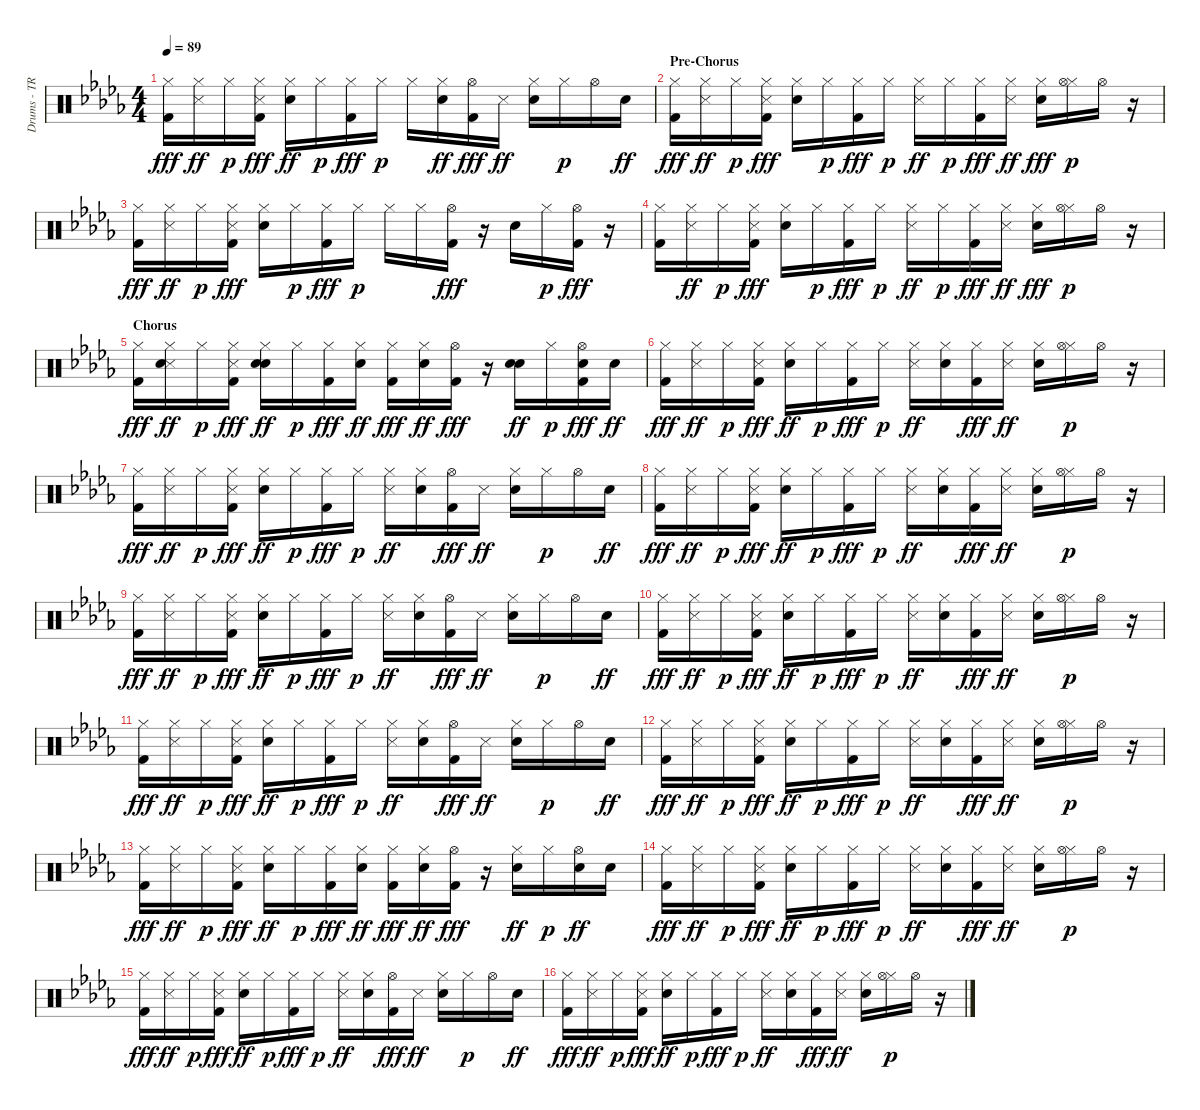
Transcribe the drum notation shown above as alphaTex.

\track ("Drums - TR808" "Drums - TR") {instrument percussion}
\staff {score}
\articulation defaults
\ts (4 4)
\tempo 89
\clef neutral
\ks bbminor
("Kick (hit) 2" "Hi-Hat (closed)").16{dy fff} ("Snare (side stick) 3" "Hi-Hat (closed)").16{dy ff} "Hi-Hat (closed)".16{dy p} ("Kick (hit) 2" "Snare (side stick) 3" "Hi-Hat (closed)").16{dy fff} ("Snare (hit) 2" "Hi-Hat (closed)").16{dy ff} "Hi-Hat (closed)".16{dy p} ("Kick (hit) 2" "Hi-Hat (closed)").16{dy fff} "Hi-Hat (closed)".16{dy p} "Hi-Hat (closed)".16 ("Snare (hit) 2" "Hi-Hat (closed)").16{dy ff} ("Kick (hit) 2" "Hi-Hat (open)").16{dy fff} "Snare (side stick) 3".16{dy ff} ("Snare (hit) 2" "Hi-Hat (closed)").16 "Hi-Hat (closed)".16{dy p} "Hi-Hat (open)".16 "Snare (hit) 2".16{dy ff} |
\section ("" "Pre-Chorus")
("Kick (hit) 2" "Hi-Hat (closed)").16{dy fff} ("Snare (side stick) 3" "Hi-Hat (closed)").16{dy ff} "Hi-Hat (closed)".16{dy p} ("Kick (hit) 2" "Snare (side stick) 3" "Hi-Hat (closed)").16{dy fff} ("Hand Clap (hit)" "Hi-Hat (closed)").16 "Hi-Hat (closed)".16{dy p} ("Kick (hit) 2" "Hi-Hat (closed)").16{dy fff} "Hi-Hat (closed)".16{dy p} ("Snare (side stick) 3" "Hi-Hat (closed)").16{dy ff} "Hi-Hat (closed)".16{dy p} ("Kick (hit) 2" "Hi-Hat (closed)").16{dy fff} ("Snare (side stick) 3" "Hi-Hat (closed)").16{dy ff} ("Hand Clap (hit)" "Hi-Hat (closed)").16{dy fff} ("Hi-Hat (closed)" "Hi-Hat (open)").16{dy p} "Hi-Hat (open)".16 r.16 |
("Kick (hit) 2" "Hi-Hat (closed)").16{dy fff} ("Snare (side stick) 3" "Hi-Hat (closed)").16{dy ff} "Hi-Hat (closed)".16{dy p} ("Kick (hit) 2" "Snare (side stick) 3" "Hi-Hat (closed)").16{dy fff} ("Hand Clap (hit)" "Hi-Hat (closed)").16 "Hi-Hat (closed)".16{dy p} ("Kick (hit) 2" "Hi-Hat (closed)").16{dy fff} "Hi-Hat (closed)".16{dy p} "Hi-Hat (closed)".16 "Hi-Hat (closed)".16 ("Kick (hit) 2" "Hi-Hat (open)").16{dy fff} r.16 "Hand Clap (hit)".16 "Hi-Hat (closed)".16{dy p} ("Kick (hit) 2" "Hi-Hat (open)").16{dy fff} r.16 |
("Kick (hit) 2" "Hi-Hat (closed)").16 ("Snare (side stick) 3" "Hi-Hat (closed)").16{dy ff} "Hi-Hat (closed)".16{dy p} ("Kick (hit) 2" "Snare (side stick) 3" "Hi-Hat (closed)").16{dy fff} ("Hand Clap (hit)" "Hi-Hat (closed)").16 "Hi-Hat (closed)".16{dy p} ("Kick (hit) 2" "Hi-Hat (closed)").16{dy fff} "Hi-Hat (closed)".16{dy p} ("Snare (side stick) 3" "Hi-Hat (closed)").16{dy ff} "Hi-Hat (closed)".16{dy p} ("Kick (hit) 2" "Hi-Hat (closed)").16{dy fff} ("Snare (side stick) 3" "Hi-Hat (closed)").16{dy ff} ("Hand Clap (hit)" "Hi-Hat (closed)").16{dy fff} ("Hi-Hat (closed)" "Hi-Hat (open)").16{dy p} "Hi-Hat (open)".16 r.16 |
\section ("" "Chorus")
("Kick (hit) 2" "Hi-Hat (closed)").16{dy fff} ("Snare (side stick) 3" "Snare (hit) 2" "Hi-Hat (closed)").16{dy ff} "Hi-Hat (closed)".16{dy p} ("Kick (hit) 2" "Snare (side stick) 3" "Hi-Hat (closed)").16{dy fff} ("Snare (hit) 2" "Hand Clap (hit)" "Hi-Hat (closed)").16{dy ff} "Hi-Hat (closed)".16{dy p} ("Kick (hit) 2" "Hi-Hat (closed)").16{dy fff} ("Snare (hit) 2" "Hi-Hat (closed)").16{dy ff} ("Kick (hit) 2" "Hi-Hat (closed)").16{dy fff} ("Snare (hit) 2" "Hi-Hat (closed)").16{dy ff} ("Kick (hit) 2" "Hi-Hat (open)").16{dy fff} r.16 ("Snare (hit) 2" "Hand Clap (hit)").16{dy ff} "Hi-Hat (closed)".16{dy p} ("Kick (hit) 2" "Snare (hit) 2" "Hi-Hat (open)").16{dy fff} "Snare (hit) 2".16{dy ff} |
("Kick (hit) 2" "Hi-Hat (closed)").16{dy fff} ("Snare (side stick) 3" "Hi-Hat (closed)").16{dy ff} "Hi-Hat (closed)".16{dy p} ("Kick (hit) 2" "Snare (side stick) 3" "Hi-Hat (closed)").16{dy fff} ("Snare (hit) 2" "Hi-Hat (closed)").16{dy ff} "Hi-Hat (closed)".16{dy p} ("Kick (hit) 2" "Hi-Hat (closed)").16{dy fff} "Hi-Hat (closed)".16{dy p} ("Snare (side stick) 3" "Hi-Hat (closed)").16{dy ff} ("Snare (hit) 2" "Hi-Hat (closed)").16 ("Kick (hit) 2" "Hi-Hat (closed)").16{dy fff} ("Snare (side stick) 3" "Hi-Hat (closed)").16{dy ff} ("Snare (hit) 2" "Hi-Hat (closed)").16 ("Hi-Hat (closed)" "Hi-Hat (open)").16{dy p} "Hi-Hat (open)".16 r.16 |
("Kick (hit) 2" "Hi-Hat (closed)").16{dy fff} ("Snare (side stick) 3" "Hi-Hat (closed)").16{dy ff} "Hi-Hat (closed)".16{dy p} ("Kick (hit) 2" "Snare (side stick) 3" "Hi-Hat (closed)").16{dy fff} ("Snare (hit) 2" "Hi-Hat (closed)").16{dy ff} "Hi-Hat (closed)".16{dy p} ("Kick (hit) 2" "Hi-Hat (closed)").16{dy fff} "Hi-Hat (closed)".16{dy p} ("Snare (side stick) 3" "Hi-Hat (closed)").16{dy ff} ("Snare (hit) 2" "Hi-Hat (closed)").16 ("Kick (hit) 2" "Hi-Hat (open)").16{dy fff} "Snare (side stick) 3".16{dy ff} ("Snare (hit) 2" "Hi-Hat (closed)").16 "Hi-Hat (closed)".16{dy p} "Hi-Hat (open)".16 "Snare (hit) 2".16{dy ff} |
("Kick (hit) 2" "Hi-Hat (closed)").16{dy fff} ("Snare (side stick) 3" "Hi-Hat (closed)").16{dy ff} "Hi-Hat (closed)".16{dy p} ("Kick (hit) 2" "Snare (side stick) 3" "Hi-Hat (closed)").16{dy fff} ("Snare (hit) 2" "Hi-Hat (closed)").16{dy ff} "Hi-Hat (closed)".16{dy p} ("Kick (hit) 2" "Hi-Hat (closed)").16{dy fff} "Hi-Hat (closed)".16{dy p} ("Snare (side stick) 3" "Hi-Hat (closed)").16{dy ff} ("Snare (hit) 2" "Hi-Hat (closed)").16 ("Kick (hit) 2" "Hi-Hat (closed)").16{dy fff} ("Snare (side stick) 3" "Hi-Hat (closed)").16{dy ff} ("Snare (hit) 2" "Hi-Hat (closed)").16 ("Hi-Hat (closed)" "Hi-Hat (open)").16{dy p} "Hi-Hat (open)".16 r.16 |
("Kick (hit) 2" "Hi-Hat (closed)").16{dy fff} ("Snare (side stick) 3" "Hi-Hat (closed)").16{dy ff} "Hi-Hat (closed)".16{dy p} ("Kick (hit) 2" "Snare (side stick) 3" "Hi-Hat (closed)").16{dy fff} ("Snare (hit) 2" "Hi-Hat (closed)").16{dy ff} "Hi-Hat (closed)".16{dy p} ("Kick (hit) 2" "Hi-Hat (closed)").16{dy fff} "Hi-Hat (closed)".16{dy p} ("Snare (side stick) 3" "Hi-Hat (closed)").16{dy ff} ("Snare (hit) 2" "Hi-Hat (closed)").16 ("Kick (hit) 2" "Hi-Hat (open)").16{dy fff} "Snare (side stick) 3".16{dy ff} ("Snare (hit) 2" "Hi-Hat (closed)").16 "Hi-Hat (closed)".16{dy p} "Hi-Hat (open)".16 "Snare (hit) 2".16{dy ff} |
("Kick (hit) 2" "Hi-Hat (closed)").16{dy fff} ("Snare (side stick) 3" "Hi-Hat (closed)").16{dy ff} "Hi-Hat (closed)".16{dy p} ("Kick (hit) 2" "Snare (side stick) 3" "Hi-Hat (closed)").16{dy fff} ("Snare (hit) 2" "Hi-Hat (closed)").16{dy ff} "Hi-Hat (closed)".16{dy p} ("Kick (hit) 2" "Hi-Hat (closed)").16{dy fff} "Hi-Hat (closed)".16{dy p} ("Snare (side stick) 3" "Hi-Hat (closed)").16{dy ff} ("Snare (hit) 2" "Hi-Hat (closed)").16 ("Kick (hit) 2" "Hi-Hat (closed)").16{dy fff} ("Snare (side stick) 3" "Hi-Hat (closed)").16{dy ff} ("Snare (hit) 2" "Hi-Hat (closed)").16 ("Hi-Hat (closed)" "Hi-Hat (open)").16{dy p} "Hi-Hat (open)".16 r.16 |
("Kick (hit) 2" "Hi-Hat (closed)").16{dy fff} ("Snare (side stick) 3" "Hi-Hat (closed)").16{dy ff} "Hi-Hat (closed)".16{dy p} ("Kick (hit) 2" "Snare (side stick) 3" "Hi-Hat (closed)").16{dy fff} ("Snare (hit) 2" "Hi-Hat (closed)").16{dy ff} "Hi-Hat (closed)".16{dy p} ("Kick (hit) 2" "Hi-Hat (closed)").16{dy fff} "Hi-Hat (closed)".16{dy p} ("Snare (side stick) 3" "Hi-Hat (closed)").16{dy ff} ("Snare (hit) 2" "Hi-Hat (closed)").16 ("Kick (hit) 2" "Hi-Hat (open)").16{dy fff} "Snare (side stick) 3".16{dy ff} ("Snare (hit) 2" "Hi-Hat (closed)").16 "Hi-Hat (closed)".16{dy p} "Hi-Hat (open)".16 "Snare (hit) 2".16{dy ff} |
("Kick (hit) 2" "Hi-Hat (closed)").16{dy fff} ("Snare (side stick) 3" "Hi-Hat (closed)").16{dy ff} "Hi-Hat (closed)".16{dy p} ("Kick (hit) 2" "Snare (side stick) 3" "Hi-Hat (closed)").16{dy fff} ("Snare (hit) 2" "Hi-Hat (closed)").16{dy ff} "Hi-Hat (closed)".16{dy p} ("Kick (hit) 2" "Hi-Hat (closed)").16{dy fff} "Hi-Hat (closed)".16{dy p} ("Snare (side stick) 3" "Hi-Hat (closed)").16{dy ff} ("Snare (hit) 2" "Hi-Hat (closed)").16 ("Kick (hit) 2" "Hi-Hat (closed)").16{dy fff} ("Snare (side stick) 3" "Hi-Hat (closed)").16{dy ff} ("Snare (hit) 2" "Hi-Hat (closed)").16 ("Hi-Hat (closed)" "Hi-Hat (open)").16{dy p} "Hi-Hat (open)".16 r.16 |
("Kick (hit) 2" "Hi-Hat (closed)").16{dy fff} ("Snare (side stick) 3" "Hi-Hat (closed)").16{dy ff} "Hi-Hat (closed)".16{dy p} ("Kick (hit) 2" "Snare (side stick) 3" "Hi-Hat (closed)").16{dy fff} ("Snare (hit) 2" "Hi-Hat (closed)").16{dy ff} "Hi-Hat (closed)".16{dy p} ("Kick (hit) 2" "Hi-Hat (closed)").16{dy fff} ("Snare (hit) 2" "Hi-Hat (closed)").16{dy ff} ("Kick (hit) 2" "Hi-Hat (closed)").16{dy fff} ("Snare (hit) 2" "Hi-Hat (closed)").16{dy ff} ("Kick (hit) 2" "Hi-Hat (open)").16{dy fff} r.16 ("Snare (hit) 2" "Hi-Hat (closed)").16{dy ff} "Hi-Hat (closed)".16{dy p} ("Snare (hit) 2" "Hi-Hat (open)").16{dy ff} "Snare (hit) 2".16 |
("Kick (hit) 2" "Hi-Hat (closed)").16{dy fff} ("Snare (side stick) 3" "Hi-Hat (closed)").16{dy ff} "Hi-Hat (closed)".16{dy p} ("Kick (hit) 2" "Snare (side stick) 3" "Hi-Hat (closed)").16{dy fff} ("Snare (hit) 2" "Hi-Hat (closed)").16{dy ff} "Hi-Hat (closed)".16{dy p} ("Kick (hit) 2" "Hi-Hat (closed)").16{dy fff} "Hi-Hat (closed)".16{dy p} ("Snare (side stick) 3" "Hi-Hat (closed)").16{dy ff} ("Snare (hit) 2" "Hi-Hat (closed)").16 ("Kick (hit) 2" "Hi-Hat (closed)").16{dy fff} ("Snare (side stick) 3" "Hi-Hat (closed)").16{dy ff} ("Snare (hit) 2" "Hi-Hat (closed)").16 ("Hi-Hat (closed)" "Hi-Hat (open)").16{dy p} "Hi-Hat (open)".16 r.16 |
("Kick (hit) 2" "Hi-Hat (closed)").16{dy fff} ("Snare (side stick) 3" "Hi-Hat (closed)").16{dy ff} "Hi-Hat (closed)".16{dy p} ("Kick (hit) 2" "Snare (side stick) 3" "Hi-Hat (closed)").16{dy fff} ("Snare (hit) 2" "Hi-Hat (closed)").16{dy ff} "Hi-Hat (closed)".16{dy p} ("Kick (hit) 2" "Hi-Hat (closed)").16{dy fff} "Hi-Hat (closed)".16{dy p} ("Snare (side stick) 3" "Hi-Hat (closed)").16{dy ff} ("Snare (hit) 2" "Hi-Hat (closed)").16 ("Kick (hit) 2" "Hi-Hat (open)").16{dy fff} "Snare (side stick) 3".16{dy ff} ("Snare (hit) 2" "Hi-Hat (closed)").16 "Hi-Hat (closed)".16{dy p} "Hi-Hat (open)".16 "Snare (hit) 2".16{dy ff} |
("Kick (hit) 2" "Hi-Hat (closed)").16{dy fff} ("Snare (side stick) 3" "Hi-Hat (closed)").16{dy ff} "Hi-Hat (closed)".16{dy p} ("Kick (hit) 2" "Snare (side stick) 3" "Hi-Hat (closed)").16{dy fff} ("Snare (hit) 2" "Hi-Hat (closed)").16{dy ff} "Hi-Hat (closed)".16{dy p} ("Kick (hit) 2" "Hi-Hat (closed)").16{dy fff} "Hi-Hat (closed)".16{dy p} ("Snare (side stick) 3" "Hi-Hat (closed)").16{dy ff} ("Snare (hit) 2" "Hi-Hat (closed)").16 ("Kick (hit) 2" "Hi-Hat (closed)").16{dy fff} ("Snare (side stick) 3" "Hi-Hat (closed)").16{dy ff} ("Snare (hit) 2" "Hi-Hat (closed)").16 ("Hi-Hat (closed)" "Hi-Hat (open)").16{dy p} "Hi-Hat (open)".16 r.16
